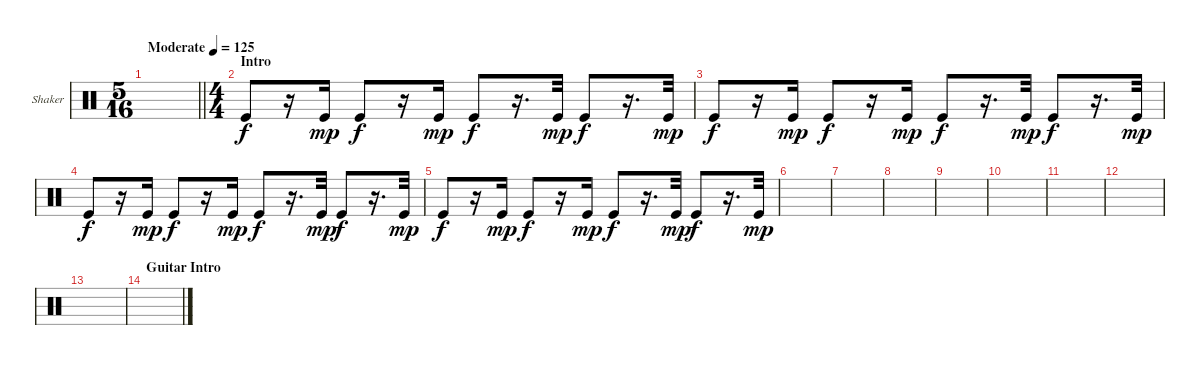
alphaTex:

\bracketExtendMode groupsimilarinstruments
\firstSystemTrackNameOrientation horizontal
\otherSystemsTrackNameOrientation horizontal
\track ("Shaker" "Shaker") {instrument percussion}
\staff {score}
\articulation defaults
\ts (5 16)
\tempo (125 "Moderate")
\clef neutral
\scale
0.390805
\barLineRight lightlight
\ks c
|
\ts (4 4)
\section ("" "Intro")
\scale
0.390805 "Kick (hit)".8 r.16 "Kick (hit)".16{dy mp} "Kick (hit)".8{dy f} r.16 "Kick (hit)".16{dy mp} "Kick (hit)".8{dy f} r.16{d} "Kick (hit)".32{dy mp} "Kick (hit)".8{dy f} r.16{d} "Kick (hit)".32{dy mp} |
\scale
0.218391 "Kick (hit)".8{dy f} r.16 "Kick (hit)".16{dy mp} "Kick (hit)".8{dy f} r.16 "Kick (hit)".16{dy mp} "Kick (hit)".8{dy f} r.16{d} "Kick (hit)".32{dy mp} "Kick (hit)".8{dy f} r.16{d} "Kick (hit)".32{dy mp} |
\scale
0.333333 "Kick (hit)".8{dy f} r.16 "Kick (hit)".16{dy mp} "Kick (hit)".8{dy f} r.16 "Kick (hit)".16{dy mp} "Kick (hit)".8{dy f} r.16{d} "Kick (hit)".32{dy mp} "Kick (hit)".8{dy f} r.16{d} "Kick (hit)".32{dy mp} |
\scale
0.333333 "Kick (hit)".8{dy f} r.16 "Kick (hit)".16{dy mp} "Kick (hit)".8{dy f} r.16 "Kick (hit)".16{dy mp} "Kick (hit)".8{dy f} r.16{d} "Kick (hit)".32{dy mp} "Kick (hit)".8{dy f} r.16{d} "Kick (hit)".32{dy mp} |
\scale
0.333333 |
\scale
0.333333 |
\scale
0.333333 |
\scale
0.333333 |
\scale
0.333333 |
\scale
0.333333 |
\scale
0.333333 |
|
\section ("" "Guitar Intro")
